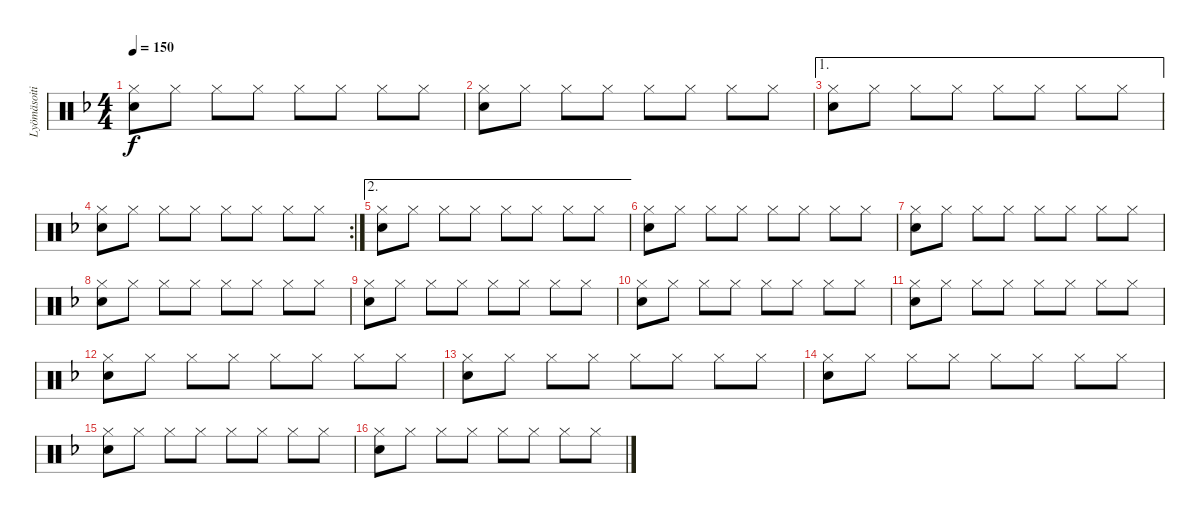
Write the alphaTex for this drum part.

\track ("Lyömäsoitin" "Lyömäsoiti") {instrument percussion}
\staff {score}
\articulation defaults
\ts (4 4)
\tempo 150
\clef neutral
\ks f
("Hi-Hat (closed)" "Electric Snare (hit)").8{dy f} "Hi-Hat (closed)".8 "Hi-Hat (closed)".8 "Hi-Hat (closed)".8 "Hi-Hat (closed)".8 "Hi-Hat (closed)".8 "Hi-Hat (closed)".8 "Hi-Hat (closed)".8 |
("Hi-Hat (closed)" "Electric Snare (hit)").8 "Hi-Hat (closed)".8 "Hi-Hat (closed)".8 "Hi-Hat (closed)".8 "Hi-Hat (closed)".8 "Hi-Hat (closed)".8 "Hi-Hat (closed)".8 "Hi-Hat (closed)".8 |
\ae 1
("Hi-Hat (closed)" "Electric Snare (hit)").8 "Hi-Hat (closed)".8 "Hi-Hat (closed)".8 "Hi-Hat (closed)".8 "Hi-Hat (closed)".8 "Hi-Hat (closed)".8 "Hi-Hat (closed)".8 "Hi-Hat (closed)".8 |
\rc 2
("Hi-Hat (closed)" "Electric Snare (hit)").8 "Hi-Hat (closed)".8 "Hi-Hat (closed)".8 "Hi-Hat (closed)".8 "Hi-Hat (closed)".8 "Hi-Hat (closed)".8 "Hi-Hat (closed)".8 "Hi-Hat (closed)".8 |
\ae 2
("Hi-Hat (closed)" "Electric Snare (hit)").8 "Hi-Hat (closed)".8 "Hi-Hat (closed)".8 "Hi-Hat (closed)".8 "Hi-Hat (closed)".8 "Hi-Hat (closed)".8 "Hi-Hat (closed)".8 "Hi-Hat (closed)".8 |
("Hi-Hat (closed)" "Electric Snare (hit)").8 "Hi-Hat (closed)".8 "Hi-Hat (closed)".8 "Hi-Hat (closed)".8 "Hi-Hat (closed)".8 "Hi-Hat (closed)".8 "Hi-Hat (closed)".8 "Hi-Hat (closed)".8 |
("Hi-Hat (closed)" "Electric Snare (hit)").8 "Hi-Hat (closed)".8 "Hi-Hat (closed)".8 "Hi-Hat (closed)".8 "Hi-Hat (closed)".8 "Hi-Hat (closed)".8 "Hi-Hat (closed)".8 "Hi-Hat (closed)".8 |
("Hi-Hat (closed)" "Electric Snare (hit)").8 "Hi-Hat (closed)".8 "Hi-Hat (closed)".8 "Hi-Hat (closed)".8 "Hi-Hat (closed)".8 "Hi-Hat (closed)".8 "Hi-Hat (closed)".8 "Hi-Hat (closed)".8 |
("Hi-Hat (closed)" "Electric Snare (hit)").8 "Hi-Hat (closed)".8 "Hi-Hat (closed)".8 "Hi-Hat (closed)".8 "Hi-Hat (closed)".8 "Hi-Hat (closed)".8 "Hi-Hat (closed)".8 "Hi-Hat (closed)".8 |
("Hi-Hat (closed)" "Electric Snare (hit)").8 "Hi-Hat (closed)".8 "Hi-Hat (closed)".8 "Hi-Hat (closed)".8 "Hi-Hat (closed)".8 "Hi-Hat (closed)".8 "Hi-Hat (closed)".8 "Hi-Hat (closed)".8 |
("Hi-Hat (closed)" "Electric Snare (hit)").8 "Hi-Hat (closed)".8 "Hi-Hat (closed)".8 "Hi-Hat (closed)".8 "Hi-Hat (closed)".8 "Hi-Hat (closed)".8 "Hi-Hat (closed)".8 "Hi-Hat (closed)".8 |
("Hi-Hat (closed)" "Electric Snare (hit)").8 "Hi-Hat (closed)".8 "Hi-Hat (closed)".8 "Hi-Hat (closed)".8 "Hi-Hat (closed)".8 "Hi-Hat (closed)".8 "Hi-Hat (closed)".8 "Hi-Hat (closed)".8 |
("Hi-Hat (closed)" "Electric Snare (hit)").8 "Hi-Hat (closed)".8 "Hi-Hat (closed)".8 "Hi-Hat (closed)".8 "Hi-Hat (closed)".8 "Hi-Hat (closed)".8 "Hi-Hat (closed)".8 "Hi-Hat (closed)".8 |
("Hi-Hat (closed)" "Electric Snare (hit)").8 "Hi-Hat (closed)".8 "Hi-Hat (closed)".8 "Hi-Hat (closed)".8 "Hi-Hat (closed)".8 "Hi-Hat (closed)".8 "Hi-Hat (closed)".8 "Hi-Hat (closed)".8 |
("Hi-Hat (closed)" "Electric Snare (hit)").8 "Hi-Hat (closed)".8 "Hi-Hat (closed)".8 "Hi-Hat (closed)".8 "Hi-Hat (closed)".8 "Hi-Hat (closed)".8 "Hi-Hat (closed)".8 "Hi-Hat (closed)".8 |
("Hi-Hat (closed)" "Electric Snare (hit)").8 "Hi-Hat (closed)".8 "Hi-Hat (closed)".8 "Hi-Hat (closed)".8 "Hi-Hat (closed)".8 "Hi-Hat (closed)".8 "Hi-Hat (closed)".8 "Hi-Hat (closed)".8
